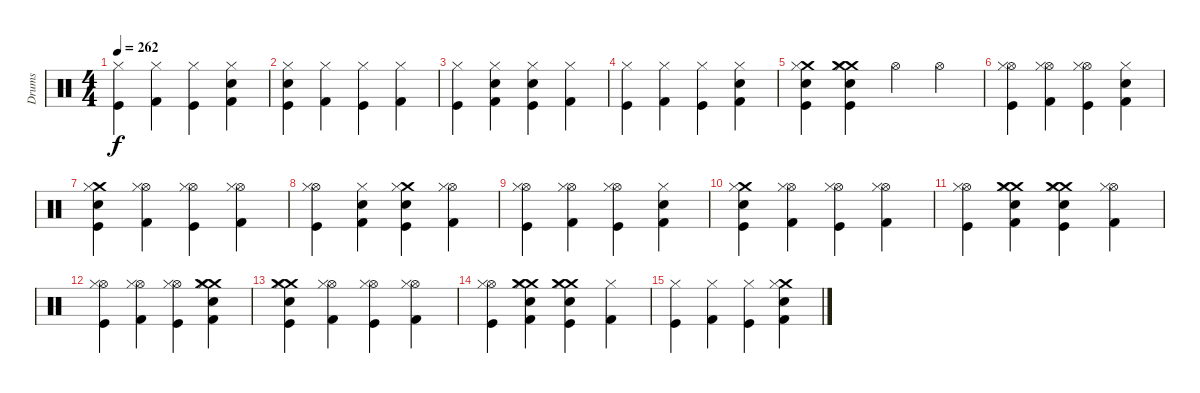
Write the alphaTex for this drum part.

\track ("Drums" "Drums") {instrument percussion}
\staff {score}
\articulation defaults
\ts (4 4)
\tempo 262
\clef neutral
\ks c
("Hi-Hat (closed)" "Kick (hit)").4{dy f} ("Hi-Hat (closed)" "Kick (hit) 2").4 ("Hi-Hat (closed)" "Kick (hit)").4 ("Electric Snare (hit)" "Hi-Hat (closed)" "Kick (hit) 2").4 |
("Electric Snare (hit)" "Hi-Hat (closed)" "Kick (hit)").4 ("Hi-Hat (closed)" "Kick (hit) 2").4 ("Hi-Hat (closed)" "Kick (hit)").4 ("Hi-Hat (closed)" "Kick (hit) 2").4 |
("Hi-Hat (closed)" "Kick (hit)").4 ("Electric Snare (hit)" "Hi-Hat (closed)" "Kick (hit) 2").4 ("Electric Snare (hit)" "Hi-Hat (closed)" "Kick (hit)").4 ("Hi-Hat (closed)" "Kick (hit) 2").4 |
("Hi-Hat (closed)" "Kick (hit)").4 ("Hi-Hat (closed)" "Kick (hit) 2").4 ("Hi-Hat (closed)" "Kick (hit)").4 ("Electric Snare (hit)" "Hi-Hat (closed)" "Kick (hit) 2").4 |
("Crash medium (hit)" "Electric Snare (hit)" "Hi-Hat (closed)" "Kick (hit)").4 ("Crash medium (hit)" "Crash medium (hit)" "Electric Snare (hit)" "Hi-Hat (closed)" "Kick (hit)").4 "Hi-Hat (open)".4 "Hi-Hat (open)".4 |
("Hi-Hat (open)" "Hi-Hat (closed)" "Kick (hit)").4 ("Hi-Hat (open)" "Hi-Hat (closed)" "Kick (hit) 2").4 ("Hi-Hat (open)" "Hi-Hat (closed)" "Kick (hit)").4 ("Electric Snare (hit)" "Hi-Hat (closed)" "Kick (hit) 2").4 |
("Crash medium (hit)" "Electric Snare (hit)" "Hi-Hat (closed)" "Kick (hit)").4 ("Hi-Hat (open)" "Hi-Hat (closed)" "Kick (hit) 2").4 ("Hi-Hat (open)" "Hi-Hat (closed)" "Kick (hit)").4 ("Hi-Hat (open)" "Hi-Hat (closed)" "Kick (hit) 2").4 |
("Hi-Hat (open)" "Hi-Hat (closed)" "Kick (hit)").4 ("Electric Snare (hit)" "Hi-Hat (closed)" "Kick (hit) 2").4 ("Crash medium (hit)" "Electric Snare (hit)" "Hi-Hat (closed)" "Kick (hit)").4 ("Hi-Hat (open)" "Hi-Hat (closed)" "Kick (hit) 2").4 |
("Hi-Hat (open)" "Hi-Hat (closed)" "Kick (hit)").4 ("Hi-Hat (open)" "Hi-Hat (closed)" "Kick (hit) 2").4 ("Hi-Hat (open)" "Hi-Hat (closed)" "Kick (hit)").4 ("Electric Snare (hit)" "Hi-Hat (closed)" "Kick (hit) 2").4 |
("Crash medium (hit)" "Electric Snare (hit)" "Hi-Hat (closed)" "Kick (hit)").4 ("Hi-Hat (open)" "Hi-Hat (closed)" "Kick (hit) 2").4 ("Hi-Hat (open)" "Hi-Hat (closed)" "Kick (hit)").4 ("Hi-Hat (open)" "Hi-Hat (closed)" "Kick (hit) 2").4 |
("Hi-Hat (open)" "Hi-Hat (closed)" "Kick (hit)").4 ("Crash medium (hit)" "Crash medium (hit)" "Electric Snare (hit)" "Hi-Hat (closed)" "Kick (hit) 2").4 ("Crash medium (hit)" "Crash medium (hit)" "Electric Snare (hit)" "Hi-Hat (closed)" "Kick (hit)").4 ("Hi-Hat (open)" "Hi-Hat (closed)" "Kick (hit) 2").4 |
("Hi-Hat (open)" "Hi-Hat (closed)" "Kick (hit)").4 ("Hi-Hat (open)" "Hi-Hat (closed)" "Kick (hit) 2").4 ("Hi-Hat (open)" "Hi-Hat (closed)" "Kick (hit)").4 ("Crash medium (hit)" "Crash medium (hit)" "Electric Snare (hit)" "Hi-Hat (closed)" "Kick (hit) 2").4 |
("Crash medium (hit)" "Crash medium (hit)" "Electric Snare (hit)" "Hi-Hat (closed)" "Kick (hit)").4 ("Hi-Hat (open)" "Hi-Hat (closed)" "Kick (hit) 2").4 ("Hi-Hat (open)" "Hi-Hat (closed)" "Kick (hit)").4 ("Hi-Hat (open)" "Hi-Hat (closed)" "Kick (hit) 2").4 |
("Hi-Hat (open)" "Hi-Hat (closed)" "Kick (hit)").4 ("Crash medium (hit)" "Crash medium (hit)" "Electric Snare (hit)" "Hi-Hat (closed)" "Kick (hit) 2").4 ("Crash medium (hit)" "Crash medium (hit)" "Electric Snare (hit)" "Hi-Hat (closed)" "Kick (hit)").4 ("Hi-Hat (closed)" "Kick (hit) 2").4 |
("Hi-Hat (closed)" "Kick (hit)").4 ("Hi-Hat (closed)" "Kick (hit) 2").4 ("Hi-Hat (closed)" "Kick (hit)").4 ("Crash medium (hit)" "Electric Snare (hit)" "Hi-Hat (closed)" "Kick (hit) 2").4
